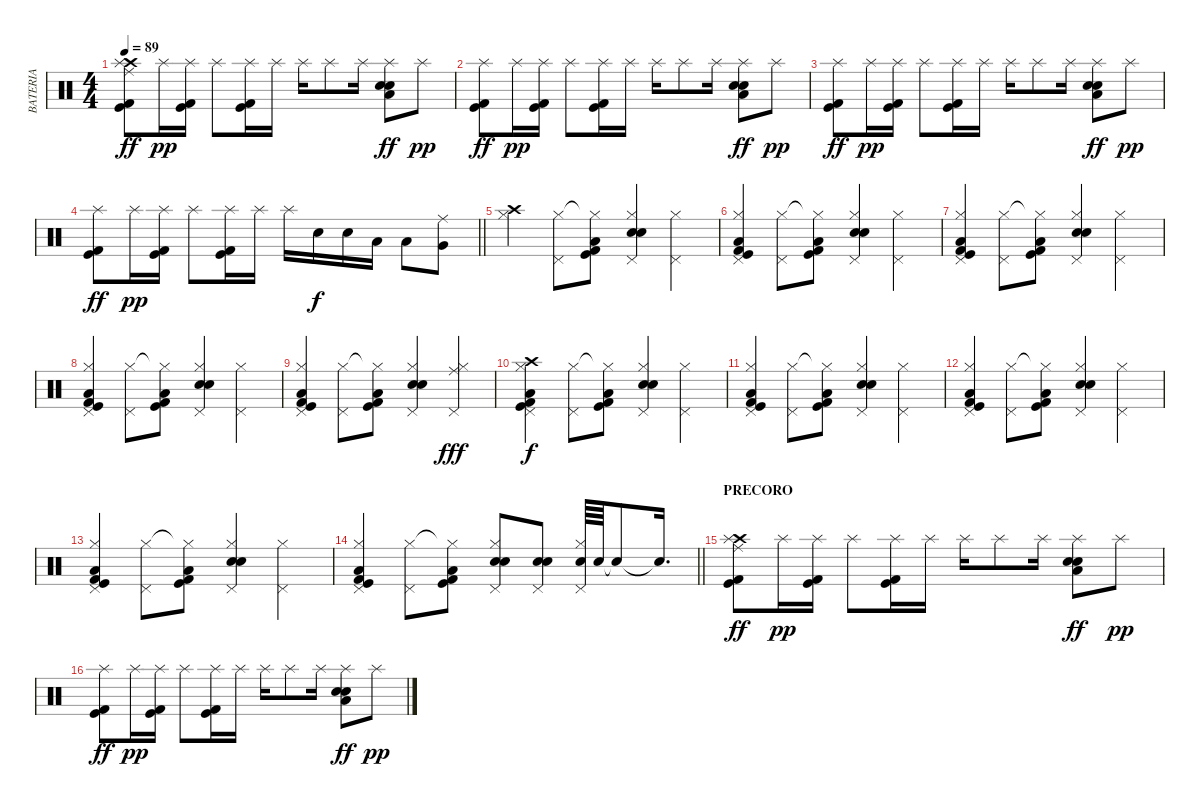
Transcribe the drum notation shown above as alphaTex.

\track ("BATERIA" "BATERIA") {instrument percussion}
\staff {score}
\articulation defaults
\ts (4 4)
\tempo 89
\clef neutral
\ks c
("Crash high (hit)" "Splash (hit)" "Ride (middle)" "Kick (hit)" "Kick (hit) 2").8{dy ff} "Splash (hit)".16{dy pp} ("Splash (hit)" "Kick (hit)" "Kick (hit) 2").16 "Splash (hit)".8 ("Splash (hit)" "Kick (hit)" "Kick (hit) 2").16 "Splash (hit)".16 "Splash (hit)".16 "Splash (hit)".8 "Splash (hit)".16 ("Splash (hit)" "Snare (hit) 2" "Snare (hit) 2" "Low Floor Tom (hit)").8{dy ff} "Splash (hit)".8{dy pp} |
("Splash (hit)" "Kick (hit)" "Kick (hit) 2").8{dy ff} "Splash (hit)".16{dy pp} ("Splash (hit)" "Kick (hit)" "Kick (hit) 2").16 "Splash (hit)".8 ("Splash (hit)" "Kick (hit)" "Kick (hit) 2").16 "Splash (hit)".16 "Splash (hit)".16 "Splash (hit)".8 "Splash (hit)".16 ("Splash (hit)" "Snare (hit) 2" "Snare (hit) 2" "Low Floor Tom (hit)").8{dy ff} "Splash (hit)".8{dy pp} |
("Splash (hit)" "Kick (hit)" "Kick (hit) 2").8{dy ff} "Splash (hit)".16{dy pp} ("Splash (hit)" "Kick (hit)" "Kick (hit) 2").16 "Splash (hit)".8 ("Splash (hit)" "Kick (hit)" "Kick (hit) 2").16 "Splash (hit)".16 "Splash (hit)".16 "Splash (hit)".8 "Splash (hit)".16 ("Splash (hit)" "Snare (hit) 2" "Snare (hit) 2" "Low Floor Tom (hit)").8{dy ff} "Splash (hit)".8{dy pp} |
\barLineRight lightlight
("Splash (hit)" "Kick (hit)" "Kick (hit) 2").8{dy ff} "Splash (hit)".16{dy pp} ("Splash (hit)" "Kick (hit)" "Kick (hit) 2").16 "Splash (hit)".8 ("Splash (hit)" "Kick (hit)" "Kick (hit) 2").16 "Splash (hit)".16 "Splash (hit)".16 "Snare (hit) 2".16{dy f} "Snare (hit) 2".16 "Low Floor Tom (hit)".16 "Low Floor Tom (hit)".8 ("Ride (middle)" "Very Low Tom (hit)").8 |
\section ("" "")
("Hi-Hat (closed)" "Crash high (hit)").4 ("Hi-Hat (closed)" "Pedal Hi-Hat (hit)").8 ("Hi-Hat (closed)"{t} "Kick (hit)" "Kick (hit) 2" "Low Floor Tom (hit)").8 ("Hi-Hat (closed)" "Pedal Hi-Hat (hit)" "Snare (hit) 2" "Snare (hit) 2").4 ("Hi-Hat (closed)" "Pedal Hi-Hat (hit)").4 |
("Hi-Hat (closed)" "Pedal Hi-Hat (hit)" "Kick (hit)" "Kick (hit) 2" "Low Floor Tom (hit)").4 ("Hi-Hat (closed)" "Pedal Hi-Hat (hit)").8 ("Hi-Hat (closed)"{t} "Kick (hit)" "Kick (hit) 2" "Low Floor Tom (hit)").8 ("Hi-Hat (closed)" "Pedal Hi-Hat (hit)" "Snare (hit) 2" "Snare (hit) 2").4 ("Hi-Hat (closed)" "Pedal Hi-Hat (hit)").4 |
("Hi-Hat (closed)" "Pedal Hi-Hat (hit)" "Kick (hit)" "Kick (hit) 2" "Low Floor Tom (hit)").4 ("Hi-Hat (closed)" "Pedal Hi-Hat (hit)").8 ("Hi-Hat (closed)"{t} "Kick (hit)" "Kick (hit) 2" "Low Floor Tom (hit)").8 ("Hi-Hat (closed)" "Pedal Hi-Hat (hit)" "Snare (hit) 2" "Snare (hit) 2").4 ("Hi-Hat (closed)" "Pedal Hi-Hat (hit)").4 |
("Hi-Hat (closed)" "Pedal Hi-Hat (hit)" "Kick (hit)" "Kick (hit) 2" "Low Floor Tom (hit)").4 ("Hi-Hat (closed)" "Pedal Hi-Hat (hit)").8 ("Hi-Hat (closed)"{t} "Kick (hit)" "Kick (hit) 2" "Low Floor Tom (hit)").8 ("Hi-Hat (closed)" "Pedal Hi-Hat (hit)" "Snare (hit) 2" "Snare (hit) 2").4 ("Hi-Hat (closed)" "Pedal Hi-Hat (hit)").4 |
("Hi-Hat (closed)" "Pedal Hi-Hat (hit)" "Kick (hit)" "Kick (hit) 2" "Low Floor Tom (hit)").4 ("Hi-Hat (closed)" "Pedal Hi-Hat (hit)").8 ("Hi-Hat (closed)"{t} "Kick (hit)" "Kick (hit) 2" "Low Floor Tom (hit)").8 ("Hi-Hat (closed)" "Pedal Hi-Hat (hit)" "Snare (hit) 2" "Snare (hit) 2").4 ("Hi-Hat (closed)" "Pedal Hi-Hat (hit)" "Ride (middle)").4{dy fff} |
("Hi-Hat (closed)" "Pedal Hi-Hat (hit)" "Kick (hit)" "Kick (hit) 2" "Low Floor Tom (hit)" "Crash high (hit)").4{dy f} ("Hi-Hat (closed)" "Pedal Hi-Hat (hit)").8 ("Hi-Hat (closed)"{t} "Kick (hit)" "Kick (hit) 2" "Low Floor Tom (hit)").8 ("Hi-Hat (closed)" "Pedal Hi-Hat (hit)" "Snare (hit) 2" "Snare (hit) 2").4 ("Hi-Hat (closed)" "Pedal Hi-Hat (hit)").4 |
("Hi-Hat (closed)" "Pedal Hi-Hat (hit)" "Kick (hit)" "Kick (hit) 2" "Low Floor Tom (hit)").4 ("Hi-Hat (closed)" "Pedal Hi-Hat (hit)").8 ("Hi-Hat (closed)"{t} "Kick (hit)" "Kick (hit) 2" "Low Floor Tom (hit)").8 ("Hi-Hat (closed)" "Pedal Hi-Hat (hit)" "Snare (hit) 2" "Snare (hit) 2").4 ("Hi-Hat (closed)" "Pedal Hi-Hat (hit)").4 |
("Hi-Hat (closed)" "Pedal Hi-Hat (hit)" "Kick (hit)" "Kick (hit) 2" "Low Floor Tom (hit)").4 ("Hi-Hat (closed)" "Pedal Hi-Hat (hit)").8 ("Hi-Hat (closed)"{t} "Kick (hit)" "Kick (hit) 2" "Low Floor Tom (hit)").8 ("Hi-Hat (closed)" "Pedal Hi-Hat (hit)" "Snare (hit) 2" "Snare (hit) 2").4 ("Hi-Hat (closed)" "Pedal Hi-Hat (hit)").4 |
("Hi-Hat (closed)" "Pedal Hi-Hat (hit)" "Kick (hit)" "Kick (hit) 2" "Low Floor Tom (hit)").4 ("Hi-Hat (closed)" "Pedal Hi-Hat (hit)").8 ("Hi-Hat (closed)"{t} "Kick (hit)" "Kick (hit) 2" "Low Floor Tom (hit)").8 ("Hi-Hat (closed)" "Pedal Hi-Hat (hit)" "Snare (hit) 2" "Snare (hit) 2").4 ("Hi-Hat (closed)" "Pedal Hi-Hat (hit)").4 |
\barLineRight lightlight
("Hi-Hat (closed)" "Pedal Hi-Hat (hit)" "Kick (hit)" "Kick (hit) 2" "Low Floor Tom (hit)").4 ("Hi-Hat (closed)" "Pedal Hi-Hat (hit)").8 ("Hi-Hat (closed)"{t} "Kick (hit)" "Kick (hit) 2" "Low Floor Tom (hit)").8 ("Hi-Hat (closed)" "Pedal Hi-Hat (hit)" "Snare (hit) 2" "Snare (hit) 2").8 ("Pedal Hi-Hat (hit)" "Snare (hit) 2" "Snare (hit) 2").8 ("Hi-Hat (closed)" "Pedal Hi-Hat (hit)" "Snare (hit) 2").64 "Snare (hit) 2".64 "Snare (hit)"{t}.8 "Snare (hit)"{t}.16{d} |
\section ("" "PRECORO")
("Crash high (hit)" "Splash (hit)" "Ride (middle)" "Kick (hit)" "Kick (hit) 2").8{dy ff} "Splash (hit)".16{dy pp} ("Splash (hit)" "Kick (hit)" "Kick (hit) 2").16 "Splash (hit)".8 ("Splash (hit)" "Kick (hit)" "Kick (hit) 2").16 "Splash (hit)".16 "Splash (hit)".16 "Splash (hit)".8 "Splash (hit)".16 ("Splash (hit)" "Snare (hit) 2" "Snare (hit) 2" "Low Floor Tom (hit)").8{dy ff} "Splash (hit)".8{dy pp} |
("Splash (hit)" "Kick (hit)" "Kick (hit) 2").8{dy ff} "Splash (hit)".16{dy pp} ("Splash (hit)" "Kick (hit)" "Kick (hit) 2").16 "Splash (hit)".8 ("Splash (hit)" "Kick (hit)" "Kick (hit) 2").16 "Splash (hit)".16 "Splash (hit)".16 "Splash (hit)".8 "Splash (hit)".16 ("Splash (hit)" "Snare (hit) 2" "Snare (hit) 2" "Low Floor Tom (hit)").8{dy ff} "Splash (hit)".8{dy pp}
